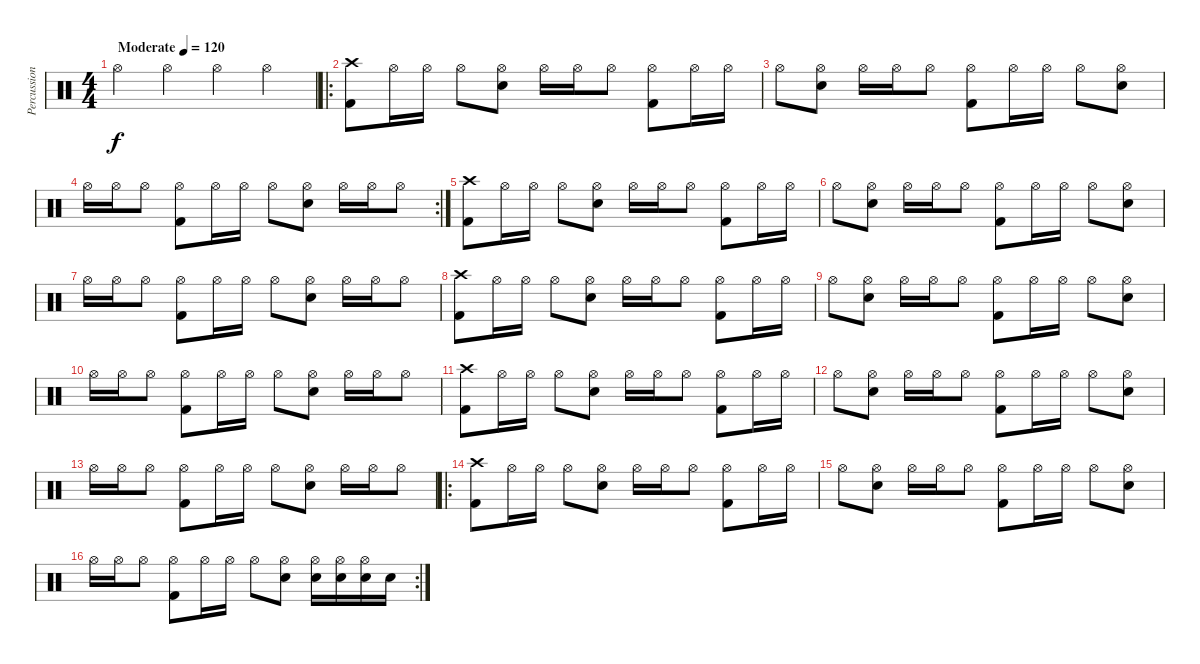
\track ("Percussion" "Percussion") {instrument percussion}
\staff {score}
\articulation defaults
\ts (4 4)
\tempo (120 "Moderate")
\clef neutral
\ks c "Hi-Hat (open)".4{dy f} "Hi-Hat (open)".4 "Hi-Hat (open)".4 "Hi-Hat (open)".4
|
\ro
("Crash high (hit)" "Kick (hit) 2").8 "Hi-Hat (open)".16 "Hi-Hat (open)".16 "Hi-Hat (open)".8 ("Hi-Hat (open)" "Snare (hit) 2").8 "Hi-Hat (open)".16 "Hi-Hat (open)".16 "Hi-Hat (open)".8 ("Hi-Hat (open)" "Kick (hit) 2").8 "Hi-Hat (open)".16 "Hi-Hat (open)".16 |
"Hi-Hat (open)".8 ("Hi-Hat (open)" "Snare (hit) 2").8 "Hi-Hat (open)".16 "Hi-Hat (open)".16 "Hi-Hat (open)".8 ("Hi-Hat (open)" "Kick (hit) 2").8 "Hi-Hat (open)".16 "Hi-Hat (open)".16 "Hi-Hat (open)".8 ("Hi-Hat (open)" "Snare (hit) 2").8 |
\rc 2 "Hi-Hat (open)".16 "Hi-Hat (open)".16 "Hi-Hat (open)".8
("Hi-Hat (open)" "Kick (hit) 2").8 "Hi-Hat (open)".16 "Hi-Hat (open)".16 "Hi-Hat (open)".8 ("Hi-Hat (open)" "Snare (hit) 2").8 "Hi-Hat (open)".16 "Hi-Hat (open)".16 "Hi-Hat (open)".8 |
("Crash high (hit)" "Kick (hit) 2").8 "Hi-Hat (open)".16 "Hi-Hat (open)".16 "Hi-Hat (open)".8 ("Hi-Hat (open)" "Snare (hit) 2").8 "Hi-Hat (open)".16 "Hi-Hat (open)".16 "Hi-Hat (open)".8 ("Hi-Hat (open)" "Kick (hit) 2").8 "Hi-Hat (open)".16 "Hi-Hat (open)".16 |
"Hi-Hat (open)".8 ("Hi-Hat (open)" "Snare (hit) 2").8 "Hi-Hat (open)".16 "Hi-Hat (open)".16 "Hi-Hat (open)".8 ("Hi-Hat (open)" "Kick (hit) 2").8 "Hi-Hat (open)".16 "Hi-Hat (open)".16 "Hi-Hat (open)".8 ("Hi-Hat (open)" "Snare (hit) 2").8 |
"Hi-Hat (open)".16 "Hi-Hat (open)".16 "Hi-Hat (open)".8 ("Hi-Hat (open)" "Kick (hit) 2").8 "Hi-Hat (open)".16 "Hi-Hat (open)".16 "Hi-Hat (open)".8 ("Hi-Hat (open)" "Snare (hit) 2").8 "Hi-Hat (open)".16 "Hi-Hat (open)".16 "Hi-Hat (open)".8 |
("Crash high (hit)" "Kick (hit) 2").8 "Hi-Hat (open)".16 "Hi-Hat (open)".16 "Hi-Hat (open)".8 ("Hi-Hat (open)" "Snare (hit) 2").8 "Hi-Hat (open)".16 "Hi-Hat (open)".16 "Hi-Hat (open)".8 ("Hi-Hat (open)" "Kick (hit) 2").8 "Hi-Hat (open)".16 "Hi-Hat (open)".16 |
"Hi-Hat (open)".8 ("Hi-Hat (open)" "Snare (hit) 2").8 "Hi-Hat (open)".16 "Hi-Hat (open)".16 "Hi-Hat (open)".8 ("Hi-Hat (open)" "Kick (hit) 2").8 "Hi-Hat (open)".16 "Hi-Hat (open)".16 "Hi-Hat (open)".8 ("Hi-Hat (open)" "Snare (hit) 2").8 |
"Hi-Hat (open)".16 "Hi-Hat (open)".16 "Hi-Hat (open)".8 ("Hi-Hat (open)" "Kick (hit) 2").8 "Hi-Hat (open)".16 "Hi-Hat (open)".16 "Hi-Hat (open)".8 ("Hi-Hat (open)" "Snare (hit) 2").8 "Hi-Hat (open)".16 "Hi-Hat (open)".16 "Hi-Hat (open)".8 |
("Crash high (hit)" "Kick (hit) 2").8 "Hi-Hat (open)".16 "Hi-Hat (open)".16 "Hi-Hat (open)".8 ("Hi-Hat (open)" "Snare (hit) 2").8 "Hi-Hat (open)".16 "Hi-Hat (open)".16 "Hi-Hat (open)".8 ("Hi-Hat (open)" "Kick (hit) 2").8 "Hi-Hat (open)".16 "Hi-Hat (open)".16 |
"Hi-Hat (open)".8 ("Hi-Hat (open)" "Snare (hit) 2").8 "Hi-Hat (open)".16 "Hi-Hat (open)".16 "Hi-Hat (open)".8 ("Hi-Hat (open)" "Kick (hit) 2").8 "Hi-Hat (open)".16 "Hi-Hat (open)".16 "Hi-Hat (open)".8 ("Hi-Hat (open)" "Snare (hit) 2").8 |
"Hi-Hat (open)".16 "Hi-Hat (open)".16 "Hi-Hat (open)".8 ("Hi-Hat (open)" "Kick (hit) 2").8 "Hi-Hat (open)".16 "Hi-Hat (open)".16 "Hi-Hat (open)".8 ("Hi-Hat (open)" "Snare (hit) 2").8 "Hi-Hat (open)".16 "Hi-Hat (open)".16 "Hi-Hat (open)".8 |
\ro
("Crash high (hit)" "Kick (hit) 2").8 "Hi-Hat (open)".16 "Hi-Hat (open)".16 "Hi-Hat (open)".8 ("Hi-Hat (open)" "Snare (hit) 2").8 "Hi-Hat (open)".16 "Hi-Hat (open)".16 "Hi-Hat (open)".8 ("Hi-Hat (open)" "Kick (hit) 2").8 "Hi-Hat (open)".16 "Hi-Hat (open)".16 |
"Hi-Hat (open)".8 ("Hi-Hat (open)" "Snare (hit) 2").8 "Hi-Hat (open)".16 "Hi-Hat (open)".16 "Hi-Hat (open)".8 ("Hi-Hat (open)" "Kick (hit) 2").8 "Hi-Hat (open)".16 "Hi-Hat (open)".16 "Hi-Hat (open)".8 ("Hi-Hat (open)" "Snare (hit) 2").8 |
\rc 2 "Hi-Hat (open)".16 "Hi-Hat (open)".16 "Hi-Hat (open)".8
("Hi-Hat (open)" "Kick (hit) 2").8 "Hi-Hat (open)".16 "Hi-Hat (open)".16 "Hi-Hat (open)".8 ("Hi-Hat (open)" "Snare (hit) 2").8 ("Hi-Hat (open)" "Snare (hit) 2").16 ("Hi-Hat (open)" "Snare (hit) 2").16 ("Hi-Hat (open)" "Snare (hit) 2").16 "Snare (hit) 2".16
